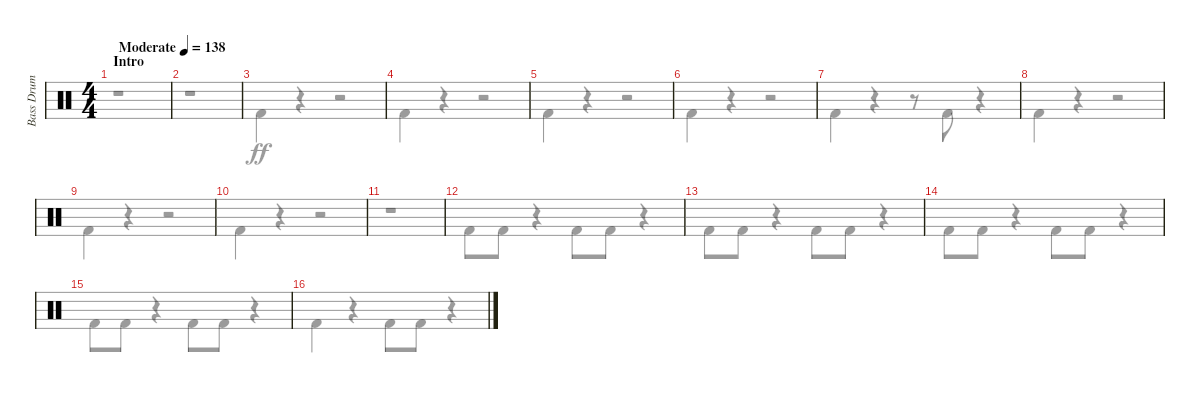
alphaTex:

\track ("Bass Drum" "Bass Drum") {instrument percussion}
\staff {score}
\articulation defaults
\voice
\ts (4 4)
\section ("" "Intro")
\tempo (138 "Moderate")
\clef neutral
\ks c
|
|
|
|
|
|
|
|
|
|
|
|
|
|
|
\voice
\clef neutral
\ks c
r.1{dy ff} |
r.1 |
"Kick (hit) 2".4 r.4 r.2 |
"Kick (hit) 2".4 r.4 r.2 |
"Kick (hit) 2".4 r.4 r.2 |
"Kick (hit) 2".4 r.4 r.2 |
"Kick (hit) 2".4 r.4 r.8 "Kick (hit) 2".8 r.4 |
"Kick (hit) 2".4 r.4 r.2 |
"Kick (hit) 2".4 r.4 r.2 |
"Kick (hit) 2".4 r.4 r.2 |
r.1 |
"Kick (hit) 2".8 "Kick (hit) 2".8 r.4 "Kick (hit) 2".8 "Kick (hit) 2".8 r.4 |
"Kick (hit) 2".8 "Kick (hit) 2".8 r.4 "Kick (hit) 2".8 "Kick (hit) 2".8 r.4 |
"Kick (hit) 2".8 "Kick (hit) 2".8 r.4 "Kick (hit) 2".8 "Kick (hit) 2".8 r.4 |
"Kick (hit) 2".8 "Kick (hit) 2".8 r.4 "Kick (hit) 2".8 "Kick (hit) 2".8 r.4 |
"Kick (hit) 2".4 r.4 "Kick (hit) 2".8 "Kick (hit) 2".8 r.4
